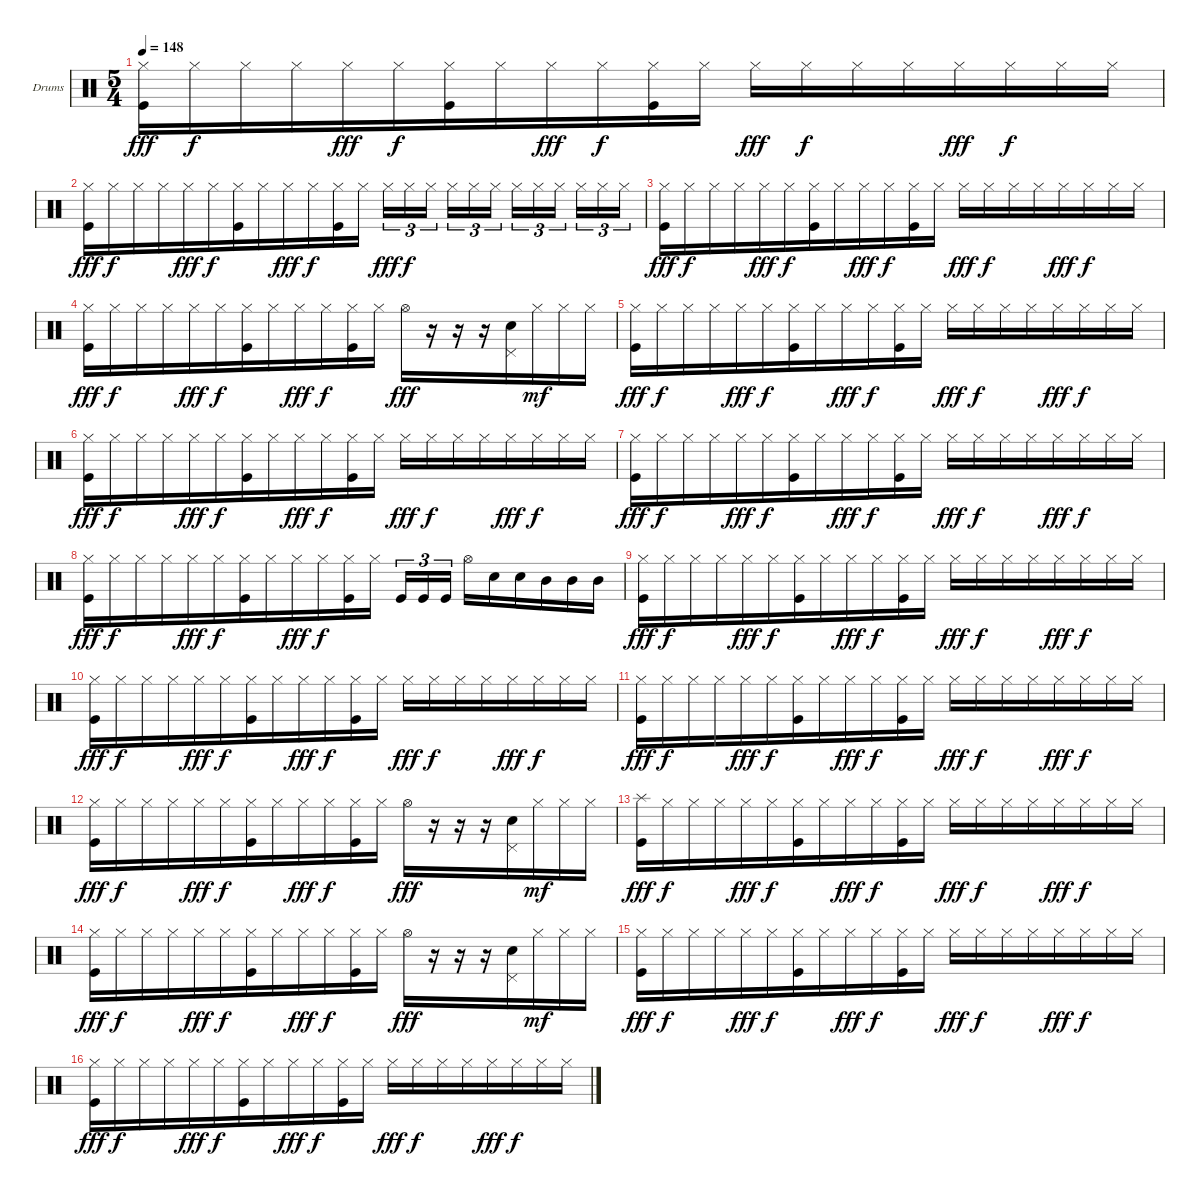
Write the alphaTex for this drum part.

\bracketExtendMode groupsimilarinstruments
\firstSystemTrackNameOrientation horizontal
\otherSystemsTrackNameOrientation horizontal
\track ("Ударные" "Drums") {instrument percussion}
\staff {score}
\articulation defaults
\ts (5 4)
\beaming (8 6 4)
\tempo 148
\clef neutral
\ks c
("Hi-Hat (closed)" "Kick (hit)").16{dy fff} "Hi-Hat (closed)".16{dy f} "Hi-Hat (closed)".16 "Hi-Hat (closed)".16 "Hi-Hat (closed)".16{dy fff} "Hi-Hat (closed)".16{dy f} ("Hi-Hat (closed)" "Kick (hit)").16 "Hi-Hat (closed)".16 "Hi-Hat (closed)".16{dy fff} "Hi-Hat (closed)".16{dy f} ("Hi-Hat (closed)" "Kick (hit)").16 "Hi-Hat (closed)".16 "Hi-Hat (closed)".16{dy fff} "Hi-Hat (closed)".16{dy f} "Hi-Hat (closed)".16 "Hi-Hat (closed)".16 "Hi-Hat (closed)".16{dy fff} "Hi-Hat (closed)".16{dy f} "Hi-Hat (closed)".16 "Hi-Hat (closed)".16 |
("Hi-Hat (closed)" "Kick (hit)").16{dy fff} "Hi-Hat (closed)".16{dy f} "Hi-Hat (closed)".16 "Hi-Hat (closed)".16 "Hi-Hat (closed)".16{dy fff} "Hi-Hat (closed)".16{dy f} ("Hi-Hat (closed)" "Kick (hit)").16 "Hi-Hat (closed)".16 "Hi-Hat (closed)".16{dy fff} "Hi-Hat (closed)".16{dy f} ("Hi-Hat (closed)" "Kick (hit)").16 "Hi-Hat (closed)".16 "Hi-Hat (closed)".16{tu (3 2) dy fff} "Hi-Hat (closed)".16{tu (3 2) dy f} "Hi-Hat (closed)".16{tu (3 2)} "Hi-Hat (closed)".16{tu (3 2)} "Hi-Hat (closed)".16{tu (3 2)} "Hi-Hat (closed)".16{tu (3 2)} "Hi-Hat (closed)".16{tu (3 2)} "Hi-Hat (closed)".16{tu (3 2)} "Hi-Hat (closed)".16{tu (3 2)} "Hi-Hat (closed)".16{tu (3 2)} "Hi-Hat (closed)".16{tu (3 2)} "Hi-Hat (closed)".16{tu (3 2)} |
("Hi-Hat (closed)" "Kick (hit)").16{dy fff} "Hi-Hat (closed)".16{dy f} "Hi-Hat (closed)".16 "Hi-Hat (closed)".16 "Hi-Hat (closed)".16{dy fff} "Hi-Hat (closed)".16{dy f} ("Hi-Hat (closed)" "Kick (hit)").16 "Hi-Hat (closed)".16 "Hi-Hat (closed)".16{dy fff} "Hi-Hat (closed)".16{dy f} ("Hi-Hat (closed)" "Kick (hit)").16 "Hi-Hat (closed)".16 "Hi-Hat (closed)".16{dy fff} "Hi-Hat (closed)".16{dy f} "Hi-Hat (closed)".16 "Hi-Hat (closed)".16 "Hi-Hat (closed)".16{dy fff} "Hi-Hat (closed)".16{dy f} "Hi-Hat (closed)".16 "Hi-Hat (closed)".16 |
("Hi-Hat (closed)" "Kick (hit)").16{dy fff} "Hi-Hat (closed)".16{dy f} "Hi-Hat (closed)".16 "Hi-Hat (closed)".16 "Hi-Hat (closed)".16{dy fff} "Hi-Hat (closed)".16{dy f} ("Hi-Hat (closed)" "Kick (hit)").16 "Hi-Hat (closed)".16 "Hi-Hat (closed)".16{dy fff} "Hi-Hat (closed)".16{dy f} ("Hi-Hat (closed)" "Kick (hit)").16 "Hi-Hat (closed)".16 "Hi-Hat (open)".16{dy fff} r.16 r.16 r.16 ("Pedal Hi-Hat (hit)" "Snare (hit) 2").16 "Hi-Hat (closed)".16{dy mf} "Hi-Hat (closed)".16 "Hi-Hat (closed)".16 |
("Hi-Hat (closed)" "Kick (hit)").16{dy fff} "Hi-Hat (closed)".16{dy f} "Hi-Hat (closed)".16 "Hi-Hat (closed)".16 "Hi-Hat (closed)".16{dy fff} "Hi-Hat (closed)".16{dy f} ("Hi-Hat (closed)" "Kick (hit)").16 "Hi-Hat (closed)".16 "Hi-Hat (closed)".16{dy fff} "Hi-Hat (closed)".16{dy f} ("Hi-Hat (closed)" "Kick (hit)").16 "Hi-Hat (closed)".16 "Hi-Hat (closed)".16{dy fff} "Hi-Hat (closed)".16{dy f} "Hi-Hat (closed)".16 "Hi-Hat (closed)".16 "Hi-Hat (closed)".16{dy fff} "Hi-Hat (closed)".16{dy f} "Hi-Hat (closed)".16 "Hi-Hat (closed)".16 |
("Hi-Hat (closed)" "Kick (hit)").16{dy fff} "Hi-Hat (closed)".16{dy f} "Hi-Hat (closed)".16 "Hi-Hat (closed)".16 "Hi-Hat (closed)".16{dy fff} "Hi-Hat (closed)".16{dy f} ("Hi-Hat (closed)" "Kick (hit)").16 "Hi-Hat (closed)".16 "Hi-Hat (closed)".16{dy fff} "Hi-Hat (closed)".16{dy f} ("Hi-Hat (closed)" "Kick (hit)").16 "Hi-Hat (closed)".16 "Hi-Hat (closed)".16{dy fff} "Hi-Hat (closed)".16{dy f} "Hi-Hat (closed)".16 "Hi-Hat (closed)".16 "Hi-Hat (closed)".16{dy fff} "Hi-Hat (closed)".16{dy f} "Hi-Hat (closed)".16 "Hi-Hat (closed)".16 |
("Hi-Hat (closed)" "Kick (hit)").16{dy fff} "Hi-Hat (closed)".16{dy f} "Hi-Hat (closed)".16 "Hi-Hat (closed)".16 "Hi-Hat (closed)".16{dy fff} "Hi-Hat (closed)".16{dy f} ("Hi-Hat (closed)" "Kick (hit)").16 "Hi-Hat (closed)".16 "Hi-Hat (closed)".16{dy fff} "Hi-Hat (closed)".16{dy f} ("Hi-Hat (closed)" "Kick (hit)").16 "Hi-Hat (closed)".16 "Hi-Hat (closed)".16{dy fff} "Hi-Hat (closed)".16{dy f} "Hi-Hat (closed)".16 "Hi-Hat (closed)".16 "Hi-Hat (closed)".16{dy fff} "Hi-Hat (closed)".16{dy f} "Hi-Hat (closed)".16 "Hi-Hat (closed)".16 |
("Hi-Hat (closed)" "Kick (hit)").16{dy fff} "Hi-Hat (closed)".16{dy f} "Hi-Hat (closed)".16 "Hi-Hat (closed)".16 "Hi-Hat (closed)".16{dy fff} "Hi-Hat (closed)".16{dy f} ("Hi-Hat (closed)" "Kick (hit)").16 "Hi-Hat (closed)".16 "Hi-Hat (closed)".16{dy fff} "Hi-Hat (closed)".16{dy f} ("Hi-Hat (closed)" "Kick (hit)").16 "Hi-Hat (closed)".16 "Kick (hit)".16{tu (3 2)} "Kick (hit)".16{tu (3 2)} "Kick (hit)".16{tu (3 2)} "Hi-Hat (open)".16 "Snare (hit) 2".16 "Snare (hit) 2".16 "Mid Tom (hit)".16 "Mid Tom (hit)".16 "Mid Tom (hit)".16 |
("Hi-Hat (closed)" "Kick (hit)").16{dy fff} "Hi-Hat (closed)".16{dy f} "Hi-Hat (closed)".16 "Hi-Hat (closed)".16 "Hi-Hat (closed)".16{dy fff} "Hi-Hat (closed)".16{dy f} ("Hi-Hat (closed)" "Kick (hit)").16 "Hi-Hat (closed)".16 "Hi-Hat (closed)".16{dy fff} "Hi-Hat (closed)".16{dy f} ("Hi-Hat (closed)" "Kick (hit)").16 "Hi-Hat (closed)".16 "Hi-Hat (closed)".16{dy fff} "Hi-Hat (closed)".16{dy f} "Hi-Hat (closed)".16 "Hi-Hat (closed)".16 "Hi-Hat (closed)".16{dy fff} "Hi-Hat (closed)".16{dy f} "Hi-Hat (closed)".16 "Hi-Hat (closed)".16 |
("Hi-Hat (closed)" "Kick (hit)").16{dy fff} "Hi-Hat (closed)".16{dy f} "Hi-Hat (closed)".16 "Hi-Hat (closed)".16 "Hi-Hat (closed)".16{dy fff} "Hi-Hat (closed)".16{dy f} ("Hi-Hat (closed)" "Kick (hit)").16 "Hi-Hat (closed)".16 "Hi-Hat (closed)".16{dy fff} "Hi-Hat (closed)".16{dy f} ("Hi-Hat (closed)" "Kick (hit)").16 "Hi-Hat (closed)".16 "Hi-Hat (closed)".16{dy fff} "Hi-Hat (closed)".16{dy f} "Hi-Hat (closed)".16 "Hi-Hat (closed)".16 "Hi-Hat (closed)".16{dy fff} "Hi-Hat (closed)".16{dy f} "Hi-Hat (closed)".16 "Hi-Hat (closed)".16 |
("Hi-Hat (closed)" "Kick (hit)").16{dy fff} "Hi-Hat (closed)".16{dy f} "Hi-Hat (closed)".16 "Hi-Hat (closed)".16 "Hi-Hat (closed)".16{dy fff} "Hi-Hat (closed)".16{dy f} ("Hi-Hat (closed)" "Kick (hit)").16 "Hi-Hat (closed)".16 "Hi-Hat (closed)".16{dy fff} "Hi-Hat (closed)".16{dy f} ("Hi-Hat (closed)" "Kick (hit)").16 "Hi-Hat (closed)".16 "Hi-Hat (closed)".16{dy fff} "Hi-Hat (closed)".16{dy f} "Hi-Hat (closed)".16 "Hi-Hat (closed)".16 "Hi-Hat (closed)".16{dy fff} "Hi-Hat (closed)".16{dy f} "Hi-Hat (closed)".16 "Hi-Hat (closed)".16 |
("Hi-Hat (closed)" "Kick (hit)").16{dy fff} "Hi-Hat (closed)".16{dy f} "Hi-Hat (closed)".16 "Hi-Hat (closed)".16 "Hi-Hat (closed)".16{dy fff} "Hi-Hat (closed)".16{dy f} ("Hi-Hat (closed)" "Kick (hit)").16 "Hi-Hat (closed)".16 "Hi-Hat (closed)".16{dy fff} "Hi-Hat (closed)".16{dy f} ("Hi-Hat (closed)" "Kick (hit)").16 "Hi-Hat (closed)".16 "Hi-Hat (open)".16{dy fff} r.16 r.16 r.16 ("Pedal Hi-Hat (hit)" "Snare (hit) 2").16 "Hi-Hat (closed)".16{dy mf} "Hi-Hat (closed)".16 "Hi-Hat (closed)".16 |
("Splash (hit)" "Kick (hit)").16{dy fff} "Hi-Hat (closed)".16{dy f} "Hi-Hat (closed)".16 "Hi-Hat (closed)".16 "Hi-Hat (closed)".16{dy fff} "Hi-Hat (closed)".16{dy f} ("Hi-Hat (closed)" "Kick (hit)").16 "Hi-Hat (closed)".16 "Hi-Hat (closed)".16{dy fff} "Hi-Hat (closed)".16{dy f} ("Hi-Hat (closed)" "Kick (hit)").16 "Hi-Hat (closed)".16 "Hi-Hat (closed)".16{dy fff} "Hi-Hat (closed)".16{dy f} "Hi-Hat (closed)".16 "Hi-Hat (closed)".16 "Hi-Hat (closed)".16{dy fff} "Hi-Hat (closed)".16{dy f} "Hi-Hat (closed)".16 "Hi-Hat (closed)".16 |
("Hi-Hat (closed)" "Kick (hit)").16{dy fff} "Hi-Hat (closed)".16{dy f} "Hi-Hat (closed)".16 "Hi-Hat (closed)".16 "Hi-Hat (closed)".16{dy fff} "Hi-Hat (closed)".16{dy f} ("Hi-Hat (closed)" "Kick (hit)").16 "Hi-Hat (closed)".16 "Hi-Hat (closed)".16{dy fff} "Hi-Hat (closed)".16{dy f} ("Hi-Hat (closed)" "Kick (hit)").16 "Hi-Hat (closed)".16 "Hi-Hat (open)".16{dy fff} r.16 r.16 r.16 ("Pedal Hi-Hat (hit)" "Snare (hit) 2").16 "Hi-Hat (closed)".16{dy mf} "Hi-Hat (closed)".16 "Hi-Hat (closed)".16 |
("Hi-Hat (closed)" "Kick (hit)").16{dy fff} "Hi-Hat (closed)".16{dy f} "Hi-Hat (closed)".16 "Hi-Hat (closed)".16 "Hi-Hat (closed)".16{dy fff} "Hi-Hat (closed)".16{dy f} ("Hi-Hat (closed)" "Kick (hit)").16 "Hi-Hat (closed)".16 "Hi-Hat (closed)".16{dy fff} "Hi-Hat (closed)".16{dy f} ("Hi-Hat (closed)" "Kick (hit)").16 "Hi-Hat (closed)".16 "Hi-Hat (closed)".16{dy fff} "Hi-Hat (closed)".16{dy f} "Hi-Hat (closed)".16 "Hi-Hat (closed)".16 "Hi-Hat (closed)".16{dy fff} "Hi-Hat (closed)".16{dy f} "Hi-Hat (closed)".16 "Hi-Hat (closed)".16 |
("Hi-Hat (closed)" "Kick (hit)").16{dy fff} "Hi-Hat (closed)".16{dy f} "Hi-Hat (closed)".16 "Hi-Hat (closed)".16 "Hi-Hat (closed)".16{dy fff} "Hi-Hat (closed)".16{dy f} ("Hi-Hat (closed)" "Kick (hit)").16 "Hi-Hat (closed)".16 "Hi-Hat (closed)".16{dy fff} "Hi-Hat (closed)".16{dy f} ("Hi-Hat (closed)" "Kick (hit)").16 "Hi-Hat (closed)".16 "Hi-Hat (closed)".16{dy fff} "Hi-Hat (closed)".16{dy f} "Hi-Hat (closed)".16 "Hi-Hat (closed)".16 "Hi-Hat (closed)".16{dy fff} "Hi-Hat (closed)".16{dy f} "Hi-Hat (closed)".16 "Hi-Hat (closed)".16
